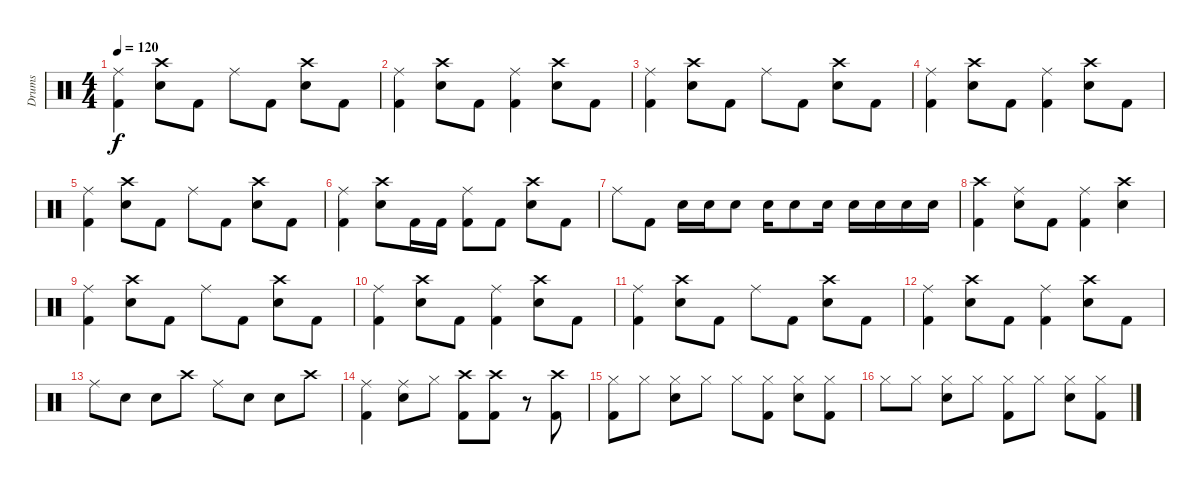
\track ("Drums" "Drums") {instrument percussion}
\staff {score}
\articulation defaults
\ts (4 4)
\tempo 120
\clef neutral
\ks c
("Ride (middle)" "Kick (hit) 2").4{dy f} ("Crash high (hit)" "Electric Snare (hit)").8 "Kick (hit) 2".8 "Ride (middle)".8 "Kick (hit) 2".8 ("Crash high (hit)" "Electric Snare (hit)").8 "Kick (hit) 2".8 |
("Ride (middle)" "Kick (hit) 2").4 ("Crash high (hit)" "Electric Snare (hit)").8 "Kick (hit) 2".8 ("Ride (middle)" "Kick (hit) 2").4 ("Crash high (hit)" "Electric Snare (hit)").8 "Kick (hit) 2".8 |
("Ride (middle)" "Kick (hit) 2").4 ("Crash high (hit)" "Electric Snare (hit)").8 "Kick (hit) 2".8 "Ride (middle)".8 "Kick (hit) 2".8 ("Crash high (hit)" "Electric Snare (hit)").8 "Kick (hit) 2".8 |
("Ride (middle)" "Kick (hit) 2").4 ("Crash high (hit)" "Electric Snare (hit)").8 "Kick (hit) 2".8 ("Ride (middle)" "Kick (hit) 2").4 ("Crash high (hit)" "Electric Snare (hit)").8 "Kick (hit) 2".8 |
("Ride (middle)" "Kick (hit) 2").4 ("Crash high (hit)" "Electric Snare (hit)").8 "Kick (hit) 2".8 "Ride (middle)".8 "Kick (hit) 2".8 ("Crash high (hit)" "Electric Snare (hit)").8 "Kick (hit) 2".8 |
("Ride (middle)" "Kick (hit) 2").4 ("Crash high (hit)" "Electric Snare (hit)").8 "Kick (hit) 2".16 "Kick (hit) 2".16 ("Ride (middle)" "Kick (hit) 2").8 "Kick (hit) 2".8 ("Crash high (hit)" "Electric Snare (hit)").8 "Kick (hit) 2".8 |
"Ride (middle)".8 "Kick (hit) 2".8 "Electric Snare (hit)".16 "Electric Snare (hit)".16 "Electric Snare (hit)".8 "Electric Snare (hit)".16 "Electric Snare (hit)".8 "Electric Snare (hit)".16 "Electric Snare (hit)".16 "Electric Snare (hit)".16 "Electric Snare (hit)".16 "Electric Snare (hit)".16 |
("Crash high (hit)" "Kick (hit) 2").4 ("Ride (middle)" "Electric Snare (hit)").8 "Kick (hit) 2".8 ("Ride (middle)" "Kick (hit) 2").4 ("Crash high (hit)" "Electric Snare (hit)").4 |
("Ride (middle)" "Kick (hit) 2").4 ("Crash high (hit)" "Electric Snare (hit)").8 "Kick (hit) 2".8 "Ride (middle)".8 "Kick (hit) 2".8 ("Crash high (hit)" "Electric Snare (hit)").8 "Kick (hit) 2".8 |
("Ride (middle)" "Kick (hit) 2").4 ("Crash high (hit)" "Electric Snare (hit)").8 "Kick (hit) 2".8 ("Ride (middle)" "Kick (hit) 2").4 ("Crash high (hit)" "Electric Snare (hit)").8 "Kick (hit) 2".8 |
("Ride (middle)" "Kick (hit) 2").4 ("Crash high (hit)" "Electric Snare (hit)").8 "Kick (hit) 2".8 "Ride (middle)".8 "Kick (hit) 2".8 ("Crash high (hit)" "Electric Snare (hit)").8 "Kick (hit) 2".8 |
("Ride (middle)" "Kick (hit) 2").4 ("Crash high (hit)" "Electric Snare (hit)").8 "Kick (hit) 2".8 ("Ride (middle)" "Kick (hit) 2").4 ("Crash high (hit)" "Electric Snare (hit)").8 "Kick (hit) 2".8 |
"Ride (middle)".8 "Electric Snare (hit)".8 "Electric Snare (hit)".8 "Crash high (hit)".8 "Ride (middle)".8 "Electric Snare (hit)".8 "Electric Snare (hit)".8 "Crash high (hit)".8 |
("Ride (middle)" "Kick (hit) 2").4 ("Ride (middle)" "Electric Snare (hit)").8 "Hi-Hat (closed)".8 ("Crash high (hit)" "Kick (hit) 2").8 ("Crash high (hit)" "Kick (hit) 2").8 r.8 ("Crash high (hit)" "Kick (hit) 2").8 |
("Hi-Hat (closed)" "Kick (hit) 2").8 "Hi-Hat (closed)".8 ("Hi-Hat (closed)" "Electric Snare (hit)").8 "Hi-Hat (closed)".8 "Hi-Hat (closed)".8 ("Hi-Hat (closed)" "Kick (hit) 2").8 ("Hi-Hat (closed)" "Electric Snare (hit)").8 ("Hi-Hat (closed)" "Kick (hit) 2").8 |
"Hi-Hat (closed)".8 "Hi-Hat (closed)".8 ("Hi-Hat (closed)" "Electric Snare (hit)").8 "Hi-Hat (closed)".8 ("Hi-Hat (closed)" "Kick (hit) 2").8 "Hi-Hat (closed)".8 ("Hi-Hat (closed)" "Electric Snare (hit)").8 ("Hi-Hat (closed)" "Kick (hit) 2").8
